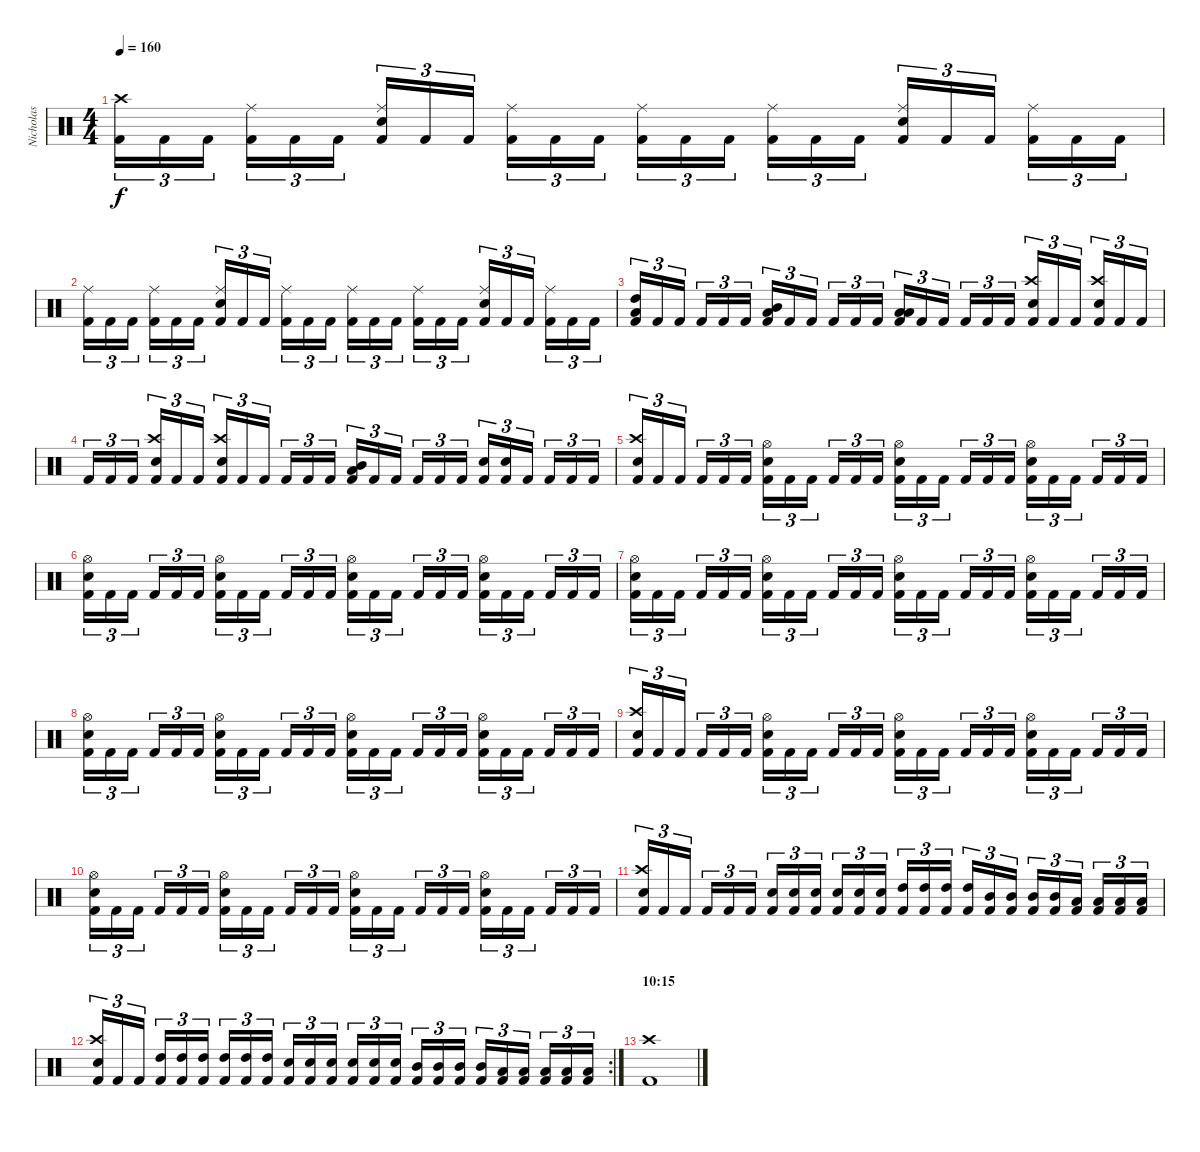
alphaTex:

\track ("Nicholas" "Nicholas") {instrument percussion}
\staff {score}
\articulation defaults
\ts (4 4)
\tempo 160
\clef neutral
\ks c
("Kick (hit) 2" "Crash high (hit)").16{tu (3 2) dy f} "Kick (hit) 2".16{tu (3 2)} "Kick (hit) 2".16{tu (3 2)} ("Kick (hit) 2" "Ride (middle)").16{tu (3 2)} "Kick (hit) 2".16{tu (3 2)} "Kick (hit) 2".16{tu (3 2)} ("Kick (hit) 2" "Snare (hit) 2" "Ride (middle)").16{tu (3 2)} "Kick (hit) 2".16{tu (3 2)} "Kick (hit) 2".16{tu (3 2)} ("Kick (hit) 2" "Ride (middle)").16{tu (3 2)} "Kick (hit) 2".16{tu (3 2)} "Kick (hit) 2".16{tu (3 2)} ("Kick (hit) 2" "Ride (middle)").16{tu (3 2)} "Kick (hit) 2".16{tu (3 2)} "Kick (hit) 2".16{tu (3 2)} ("Kick (hit) 2" "Ride (middle)").16{tu (3 2)} "Kick (hit) 2".16{tu (3 2)} "Kick (hit) 2".16{tu (3 2)} ("Kick (hit) 2" "Snare (hit) 2" "Ride (middle)").16{tu (3 2)} "Kick (hit) 2".16{tu (3 2)} "Kick (hit) 2".16{tu (3 2)} ("Kick (hit) 2" "Ride (middle)").16{tu (3 2)} "Kick (hit) 2".16{tu (3 2)} "Kick (hit) 2".16{tu (3 2)} |
("Kick (hit) 2" "Ride (middle)").16{tu (3 2)} "Kick (hit) 2".16{tu (3 2)} "Kick (hit) 2".16{tu (3 2)} ("Kick (hit) 2" "Ride (middle)").16{tu (3 2)} "Kick (hit) 2".16{tu (3 2)} "Kick (hit) 2".16{tu (3 2)} ("Kick (hit) 2" "Snare (hit) 2" "Ride (middle)").16{tu (3 2)} "Kick (hit) 2".16{tu (3 2)} "Kick (hit) 2".16{tu (3 2)} ("Kick (hit) 2" "Ride (middle)").16{tu (3 2)} "Kick (hit) 2".16{tu (3 2)} "Kick (hit) 2".16{tu (3 2)} ("Kick (hit) 2" "Ride (middle)").16{tu (3 2)} "Kick (hit) 2".16{tu (3 2)} "Kick (hit) 2".16{tu (3 2)} ("Kick (hit) 2" "Ride (middle)").16{tu (3 2)} "Kick (hit) 2".16{tu (3 2)} "Kick (hit) 2".16{tu (3 2)} ("Kick (hit) 2" "Snare (hit) 2" "Ride (middle)").16{tu (3 2)} "Kick (hit) 2".16{tu (3 2)} "Kick (hit) 2".16{tu (3 2)} ("Kick (hit) 2" "Ride (middle)").16{tu (3 2)} "Kick (hit) 2".16{tu (3 2)} "Kick (hit) 2".16{tu (3 2)} |
("Kick (hit) 2" "Low Tom (hit)" "High Tom (hit)").16{tu (3 2)} "Kick (hit) 2".16{tu (3 2)} "Kick (hit) 2".16{tu (3 2)} "Kick (hit) 2".16{tu (3 2)} "Kick (hit) 2".16{tu (3 2)} "Kick (hit) 2".16{tu (3 2)} ("Kick (hit) 2" "Low Tom (hit)" "Mid Tom (hit)").16{tu (3 2)} "Kick (hit) 2".16{tu (3 2)} "Kick (hit) 2".16{tu (3 2)} "Kick (hit) 2".16{tu (3 2)} "Kick (hit) 2".16{tu (3 2)} "Kick (hit) 2".16{tu (3 2)} ("Kick (hit) 2" "Low Tom (hit)" "Low Tom (hit)").16{tu (3 2)} "Kick (hit) 2".16{tu (3 2)} "Kick (hit) 2".16{tu (3 2)} "Kick (hit) 2".16{tu (3 2)} "Kick (hit) 2".16{tu (3 2)} "Kick (hit) 2".16{tu (3 2)} ("Kick (hit) 2" "Snare (hit) 2" "Crash high (hit)").16{tu (3 2)} "Kick (hit) 2".16{tu (3 2)} "Kick (hit) 2".16{tu (3 2)} ("Kick (hit) 2" "Snare (hit) 2" "Crash high (hit)").16{tu (3 2)} "Kick (hit) 2".16{tu (3 2)} "Kick (hit) 2".16{tu (3 2)} |
"Kick (hit) 2".16{tu (3 2)} "Kick (hit) 2".16{tu (3 2)} "Kick (hit) 2".16{tu (3 2)} ("Kick (hit) 2" "Snare (hit) 2" "Crash high (hit)").16{tu (3 2)} "Kick (hit) 2".16{tu (3 2)} "Kick (hit) 2".16{tu (3 2)} ("Kick (hit) 2" "Snare (hit) 2" "Crash high (hit)").16{tu (3 2)} "Kick (hit) 2".16{tu (3 2)} "Kick (hit) 2".16{tu (3 2)} "Kick (hit) 2".16{tu (3 2)} "Kick (hit) 2".16{tu (3 2)} "Kick (hit) 2".16{tu (3 2)} ("Kick (hit) 2" "Low Tom (hit)" "Mid Tom (hit)").16{tu (3 2)} "Kick (hit) 2".16{tu (3 2)} "Kick (hit) 2".16{tu (3 2)} "Kick (hit) 2".16{tu (3 2)} "Kick (hit) 2".16{tu (3 2)} "Kick (hit) 2".16{tu (3 2)} ("Kick (hit) 2" "Snare (hit) 2").16{tu (3 2)} ("Kick (hit) 2" "Snare (hit) 2").16{tu (3 2)} "Kick (hit) 2".16{tu (3 2)} "Kick (hit) 2".16{tu (3 2)} "Kick (hit) 2".16{tu (3 2)} "Kick (hit) 2".16{tu (3 2)} |
("Kick (hit) 2" "Snare (hit) 2" "Crash high (hit)").16{tu (3 2)} "Kick (hit) 2".16{tu (3 2)} "Kick (hit) 2".16{tu (3 2)} "Kick (hit) 2".16{tu (3 2)} "Kick (hit) 2".16{tu (3 2)} "Kick (hit) 2".16{tu (3 2)} ("Kick (hit) 2" "Snare (hit) 2" "Hi-Hat (open)").16{tu (3 2)} "Kick (hit) 2".16{tu (3 2)} "Kick (hit) 2".16{tu (3 2)} "Kick (hit) 2".16{tu (3 2)} "Kick (hit) 2".16{tu (3 2)} "Kick (hit) 2".16{tu (3 2)} ("Kick (hit) 2" "Snare (hit) 2" "Hi-Hat (open)").16{tu (3 2)} "Kick (hit) 2".16{tu (3 2)} "Kick (hit) 2".16{tu (3 2)} "Kick (hit) 2".16{tu (3 2)} "Kick (hit) 2".16{tu (3 2)} "Kick (hit) 2".16{tu (3 2)} ("Kick (hit) 2" "Snare (hit) 2" "Hi-Hat (open)").16{tu (3 2)} "Kick (hit) 2".16{tu (3 2)} "Kick (hit) 2".16{tu (3 2)} "Kick (hit) 2".16{tu (3 2)} "Kick (hit) 2".16{tu (3 2)} "Kick (hit) 2".16{tu (3 2)} |
("Kick (hit) 2" "Snare (hit) 2" "Hi-Hat (open)").16{tu (3 2)} "Kick (hit) 2".16{tu (3 2)} "Kick (hit) 2".16{tu (3 2)} "Kick (hit) 2".16{tu (3 2)} "Kick (hit) 2".16{tu (3 2)} "Kick (hit) 2".16{tu (3 2)} ("Kick (hit) 2" "Snare (hit) 2" "Hi-Hat (open)").16{tu (3 2)} "Kick (hit) 2".16{tu (3 2)} "Kick (hit) 2".16{tu (3 2)} "Kick (hit) 2".16{tu (3 2)} "Kick (hit) 2".16{tu (3 2)} "Kick (hit) 2".16{tu (3 2)} ("Kick (hit) 2" "Snare (hit) 2" "Hi-Hat (open)").16{tu (3 2)} "Kick (hit) 2".16{tu (3 2)} "Kick (hit) 2".16{tu (3 2)} "Kick (hit) 2".16{tu (3 2)} "Kick (hit) 2".16{tu (3 2)} "Kick (hit) 2".16{tu (3 2)} ("Kick (hit) 2" "Snare (hit) 2" "Hi-Hat (open)").16{tu (3 2)} "Kick (hit) 2".16{tu (3 2)} "Kick (hit) 2".16{tu (3 2)} "Kick (hit) 2".16{tu (3 2)} "Kick (hit) 2".16{tu (3 2)} "Kick (hit) 2".16{tu (3 2)} |
("Kick (hit) 2" "Snare (hit) 2" "Hi-Hat (open)").16{tu (3 2)} "Kick (hit) 2".16{tu (3 2)} "Kick (hit) 2".16{tu (3 2)} "Kick (hit) 2".16{tu (3 2)} "Kick (hit) 2".16{tu (3 2)} "Kick (hit) 2".16{tu (3 2)} ("Kick (hit) 2" "Snare (hit) 2" "Hi-Hat (open)").16{tu (3 2)} "Kick (hit) 2".16{tu (3 2)} "Kick (hit) 2".16{tu (3 2)} "Kick (hit) 2".16{tu (3 2)} "Kick (hit) 2".16{tu (3 2)} "Kick (hit) 2".16{tu (3 2)} ("Kick (hit) 2" "Snare (hit) 2" "Hi-Hat (open)").16{tu (3 2)} "Kick (hit) 2".16{tu (3 2)} "Kick (hit) 2".16{tu (3 2)} "Kick (hit) 2".16{tu (3 2)} "Kick (hit) 2".16{tu (3 2)} "Kick (hit) 2".16{tu (3 2)} ("Kick (hit) 2" "Snare (hit) 2" "Hi-Hat (open)").16{tu (3 2)} "Kick (hit) 2".16{tu (3 2)} "Kick (hit) 2".16{tu (3 2)} "Kick (hit) 2".16{tu (3 2)} "Kick (hit) 2".16{tu (3 2)} "Kick (hit) 2".16{tu (3 2)} |
("Kick (hit) 2" "Snare (hit) 2" "Hi-Hat (open)").16{tu (3 2)} "Kick (hit) 2".16{tu (3 2)} "Kick (hit) 2".16{tu (3 2)} "Kick (hit) 2".16{tu (3 2)} "Kick (hit) 2".16{tu (3 2)} "Kick (hit) 2".16{tu (3 2)} ("Kick (hit) 2" "Snare (hit) 2" "Hi-Hat (open)").16{tu (3 2)} "Kick (hit) 2".16{tu (3 2)} "Kick (hit) 2".16{tu (3 2)} "Kick (hit) 2".16{tu (3 2)} "Kick (hit) 2".16{tu (3 2)} "Kick (hit) 2".16{tu (3 2)} ("Kick (hit) 2" "Snare (hit) 2" "Hi-Hat (open)").16{tu (3 2)} "Kick (hit) 2".16{tu (3 2)} "Kick (hit) 2".16{tu (3 2)} "Kick (hit) 2".16{tu (3 2)} "Kick (hit) 2".16{tu (3 2)} "Kick (hit) 2".16{tu (3 2)} ("Kick (hit) 2" "Snare (hit) 2" "Hi-Hat (open)").16{tu (3 2)} "Kick (hit) 2".16{tu (3 2)} "Kick (hit) 2".16{tu (3 2)} "Kick (hit) 2".16{tu (3 2)} "Kick (hit) 2".16{tu (3 2)} "Kick (hit) 2".16{tu (3 2)} |
("Kick (hit) 2" "Snare (hit) 2" "Crash high (hit)").16{tu (3 2)} "Kick (hit) 2".16{tu (3 2)} "Kick (hit) 2".16{tu (3 2)} "Kick (hit) 2".16{tu (3 2)} "Kick (hit) 2".16{tu (3 2)} "Kick (hit) 2".16{tu (3 2)} ("Kick (hit) 2" "Snare (hit) 2" "Hi-Hat (open)").16{tu (3 2)} "Kick (hit) 2".16{tu (3 2)} "Kick (hit) 2".16{tu (3 2)} "Kick (hit) 2".16{tu (3 2)} "Kick (hit) 2".16{tu (3 2)} "Kick (hit) 2".16{tu (3 2)} ("Kick (hit) 2" "Snare (hit) 2" "Hi-Hat (open)").16{tu (3 2)} "Kick (hit) 2".16{tu (3 2)} "Kick (hit) 2".16{tu (3 2)} "Kick (hit) 2".16{tu (3 2)} "Kick (hit) 2".16{tu (3 2)} "Kick (hit) 2".16{tu (3 2)} ("Kick (hit) 2" "Snare (hit) 2" "Hi-Hat (open)").16{tu (3 2)} "Kick (hit) 2".16{tu (3 2)} "Kick (hit) 2".16{tu (3 2)} "Kick (hit) 2".16{tu (3 2)} "Kick (hit) 2".16{tu (3 2)} "Kick (hit) 2".16{tu (3 2)} |
("Kick (hit) 2" "Snare (hit) 2" "Hi-Hat (open)").16{tu (3 2)} "Kick (hit) 2".16{tu (3 2)} "Kick (hit) 2".16{tu (3 2)} "Kick (hit) 2".16{tu (3 2)} "Kick (hit) 2".16{tu (3 2)} "Kick (hit) 2".16{tu (3 2)} ("Kick (hit) 2" "Snare (hit) 2" "Hi-Hat (open)").16{tu (3 2)} "Kick (hit) 2".16{tu (3 2)} "Kick (hit) 2".16{tu (3 2)} "Kick (hit) 2".16{tu (3 2)} "Kick (hit) 2".16{tu (3 2)} "Kick (hit) 2".16{tu (3 2)} ("Kick (hit) 2" "Snare (hit) 2" "Hi-Hat (open)").16{tu (3 2)} "Kick (hit) 2".16{tu (3 2)} "Kick (hit) 2".16{tu (3 2)} "Kick (hit) 2".16{tu (3 2)} "Kick (hit) 2".16{tu (3 2)} "Kick (hit) 2".16{tu (3 2)} ("Kick (hit) 2" "Snare (hit) 2" "Hi-Hat (open)").16{tu (3 2)} "Kick (hit) 2".16{tu (3 2)} "Kick (hit) 2".16{tu (3 2)} "Kick (hit) 2".16{tu (3 2)} "Kick (hit) 2".16{tu (3 2)} "Kick (hit) 2".16{tu (3 2)} |
("Kick (hit) 2" "Snare (hit) 2" "Crash high (hit)").16{tu (3 2)} "Kick (hit) 2".16{tu (3 2)} "Kick (hit) 2".16{tu (3 2)} "Kick (hit) 2".16{tu (3 2)} "Kick (hit) 2".16{tu (3 2)} "Kick (hit) 2".16{tu (3 2)} ("Kick (hit) 2" "Snare (hit) 2").16{tu (3 2)} ("Kick (hit) 2" "Snare (hit) 2").16{tu (3 2)} ("Kick (hit) 2" "Snare (hit) 2").16{tu (3 2)} ("Kick (hit) 2" "Snare (hit) 2").16{tu (3 2)} ("Kick (hit) 2" "Snare (hit) 2").16{tu (3 2)} ("Kick (hit) 2" "Snare (hit) 2").16{tu (3 2)} ("Kick (hit) 2" "High Tom (hit)").16{tu (3 2)} ("Kick (hit) 2" "High Tom (hit)").16{tu (3 2)} ("Kick (hit) 2" "High Tom (hit)").16{tu (3 2)} ("Kick (hit) 2" "High Tom (hit)").16{tu (3 2)} ("Kick (hit) 2" "Mid Tom (hit)").16{tu (3 2)} ("Kick (hit) 2" "Mid Tom (hit)").16{tu (3 2)} ("Kick (hit) 2" "Mid Tom (hit)").16{tu (3 2)} ("Kick (hit) 2" "Mid Tom (hit)").16{tu (3 2)} ("Kick (hit) 2" "Low Tom (hit)").16{tu (3 2)} ("Kick (hit) 2" "Low Tom (hit)").16{tu (3 2)} ("Kick (hit) 2" "Low Tom (hit)").16{tu (3 2)} ("Kick (hit) 2" "Low Tom (hit)").16{tu (3 2)} |
\rc 2
("Kick (hit) 2" "Snare (hit) 2" "Crash high (hit)").16{tu (3 2)} "Kick (hit) 2".16{tu (3 2)} "Kick (hit) 2".16{tu (3 2)} ("Kick (hit) 2" "High Tom (hit)").16{tu (3 2)} ("Kick (hit) 2" "High Tom (hit)").16{tu (3 2)} ("Kick (hit) 2" "High Tom (hit)").16{tu (3 2)} ("Kick (hit) 2" "High Tom (hit)").16{tu (3 2)} ("Kick (hit) 2" "High Tom (hit)").16{tu (3 2)} ("Kick (hit) 2" "High Tom (hit)").16{tu (3 2)} ("Kick (hit) 2" "Snare (hit) 2").16{tu (3 2)} ("Kick (hit) 2" "Snare (hit) 2").16{tu (3 2)} ("Kick (hit) 2" "Snare (hit) 2").16{tu (3 2)} ("Kick (hit) 2" "Snare (hit) 2").16{tu (3 2)} ("Kick (hit) 2" "Snare (hit) 2").16{tu (3 2)} ("Kick (hit) 2" "Snare (hit) 2").16{tu (3 2)} ("Kick (hit) 2" "Mid Tom (hit)").16{tu (3 2)} ("Kick (hit) 2" "Mid Tom (hit)").16{tu (3 2)} ("Kick (hit) 2" "Mid Tom (hit)").16{tu (3 2)} ("Kick (hit) 2" "Mid Tom (hit)").16{tu (3 2)} ("Kick (hit) 2" "Low Tom (hit)").16{tu (3 2)} ("Kick (hit) 2" "Low Tom (hit)").16{tu (3 2)} ("Kick (hit) 2" "Low Tom (hit)").16{tu (3 2)} ("Kick (hit) 2" "Low Tom (hit)").16{tu (3 2)} ("Kick (hit) 2" "Low Tom (hit)").16{tu (3 2)} |
\section ("" "10:15")
("Kick (hit) 2" "Crash high (hit)").1
